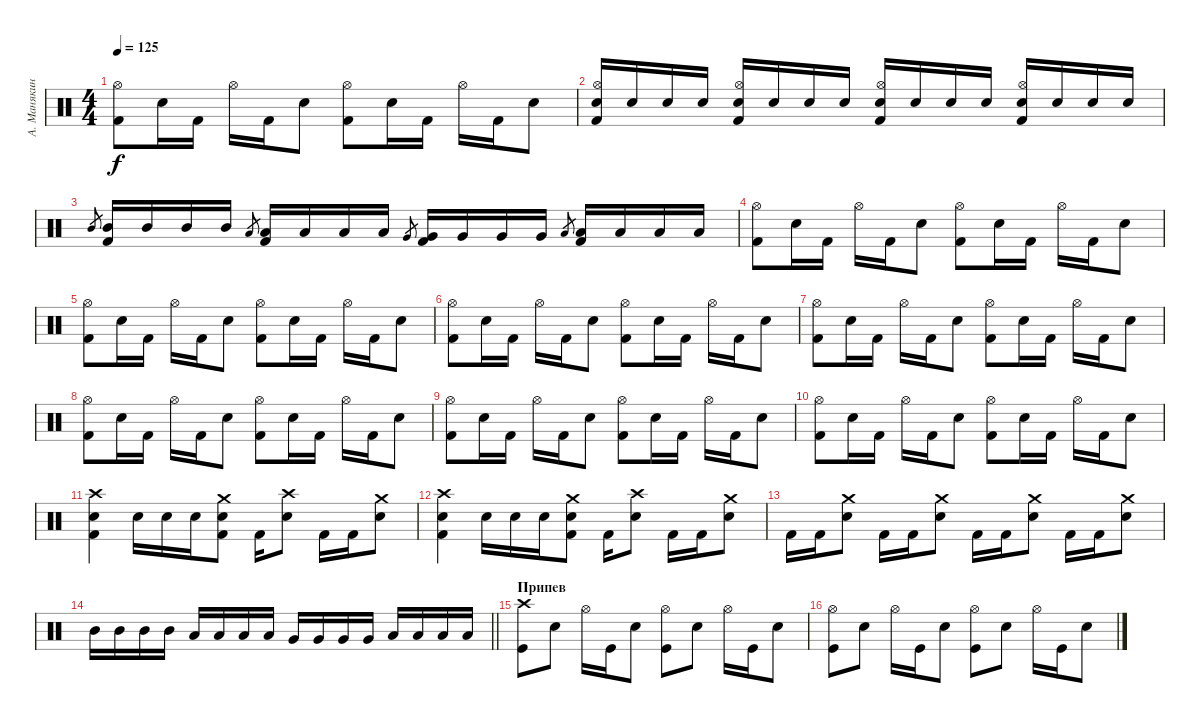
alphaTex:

\track ("А. Манякин" "А. Манякин") {instrument percussion}
\staff {score}
\articulation defaults
\ts (4 4)
\tempo 125
\clef neutral
\ks c
("Kick (hit) 2" "Hi-Hat (open)").8{dy f} "Electric Snare (hit)".16 "Kick (hit) 2".16 "Hi-Hat (open)".16 "Kick (hit) 2".16 "Electric Snare (hit)".8 ("Kick (hit) 2" "Hi-Hat (open)").8 "Electric Snare (hit)".16 "Kick (hit) 2".16 "Hi-Hat (open)".16 "Kick (hit) 2".16 "Electric Snare (hit)".8 |
("Kick (hit) 2" "Electric Snare (hit)" "Hi-Hat (open)").16 "Electric Snare (hit)".16 "Electric Snare (hit)".16 "Electric Snare (hit)".16 ("Kick (hit) 2" "Electric Snare (hit)" "Hi-Hat (open)").16 "Electric Snare (hit)".16 "Electric Snare (hit)".16 "Electric Snare (hit)".16 ("Kick (hit) 2" "Electric Snare (hit)" "Hi-Hat (open)").16 "Electric Snare (hit)".16 "Electric Snare (hit)".16 "Electric Snare (hit)".16 ("Kick (hit) 2" "Electric Snare (hit)" "Hi-Hat (open)").16 "Electric Snare (hit)".16 "Electric Snare (hit)".16 "Electric Snare (hit)".16 |
"Mid Tom (hit)".8{gr} ("Kick (hit) 2" "Mid Tom (hit)").16 "Mid Tom (hit)".16 "Mid Tom (hit)".16 "Mid Tom (hit)".16 "Low Tom (hit)".8{gr} ("Kick (hit) 2" "Low Tom (hit)").16 "Low Tom (hit)".16 "Low Tom (hit)".16 "Low Tom (hit)".16 "Very Low Tom (hit)".8{gr} ("Kick (hit) 2" "Very Low Tom (hit)").16 "Very Low Tom (hit)".16 "Very Low Tom (hit)".16 "Very Low Tom (hit)".16 "Low Floor Tom (hit)".8{gr} ("Kick (hit) 2" "Low Floor Tom (hit)").16 "Low Floor Tom (hit)".16 "Low Floor Tom (hit)".16 "Low Floor Tom (hit)".16 |
("Kick (hit) 2" "Hi-Hat (open)").8 "Electric Snare (hit)".16 "Kick (hit) 2".16 "Hi-Hat (open)".16 "Kick (hit) 2".16 "Electric Snare (hit)".8 ("Kick (hit) 2" "Hi-Hat (open)").8 "Electric Snare (hit)".16 "Kick (hit) 2".16 "Hi-Hat (open)".16 "Kick (hit) 2".16 "Electric Snare (hit)".8 |
("Kick (hit) 2" "Hi-Hat (open)").8 "Electric Snare (hit)".16 "Kick (hit) 2".16 "Hi-Hat (open)".16 "Kick (hit) 2".16 "Electric Snare (hit)".8 ("Kick (hit) 2" "Hi-Hat (open)").8 "Electric Snare (hit)".16 "Kick (hit) 2".16 "Hi-Hat (open)".16 "Kick (hit) 2".16 "Electric Snare (hit)".8 |
("Kick (hit) 2" "Hi-Hat (open)").8 "Electric Snare (hit)".16 "Kick (hit) 2".16 "Hi-Hat (open)".16 "Kick (hit) 2".16 "Electric Snare (hit)".8 ("Kick (hit) 2" "Hi-Hat (open)").8 "Electric Snare (hit)".16 "Kick (hit) 2".16 "Hi-Hat (open)".16 "Kick (hit) 2".16 "Electric Snare (hit)".8 |
("Kick (hit) 2" "Hi-Hat (open)").8 "Electric Snare (hit)".16 "Kick (hit) 2".16 "Hi-Hat (open)".16 "Kick (hit) 2".16 "Electric Snare (hit)".8 ("Kick (hit) 2" "Hi-Hat (open)").8 "Electric Snare (hit)".16 "Kick (hit) 2".16 "Hi-Hat (open)".16 "Kick (hit) 2".16 "Electric Snare (hit)".8 |
("Kick (hit) 2" "Hi-Hat (open)").8 "Electric Snare (hit)".16 "Kick (hit) 2".16 "Hi-Hat (open)".16 "Kick (hit) 2".16 "Electric Snare (hit)".8 ("Kick (hit) 2" "Hi-Hat (open)").8 "Electric Snare (hit)".16 "Kick (hit) 2".16 "Hi-Hat (open)".16 "Kick (hit) 2".16 "Electric Snare (hit)".8 |
("Kick (hit) 2" "Hi-Hat (open)").8 "Electric Snare (hit)".16 "Kick (hit) 2".16 "Hi-Hat (open)".16 "Kick (hit) 2".16 "Electric Snare (hit)".8 ("Kick (hit) 2" "Hi-Hat (open)").8 "Electric Snare (hit)".16 "Kick (hit) 2".16 "Hi-Hat (open)".16 "Kick (hit) 2".16 "Electric Snare (hit)".8 |
("Kick (hit) 2" "Hi-Hat (open)").8 "Electric Snare (hit)".16 "Kick (hit) 2".16 "Hi-Hat (open)".16 "Kick (hit) 2".16 "Electric Snare (hit)".8 ("Kick (hit) 2" "Hi-Hat (open)").8 "Electric Snare (hit)".16 "Kick (hit) 2".16 "Hi-Hat (open)".16 "Kick (hit) 2".16 "Electric Snare (hit)".8 |
("Kick (hit) 2" "Electric Snare (hit)" "Crash high (hit)").4 "Electric Snare (hit)".16 "Electric Snare (hit)".16 "Electric Snare (hit)".16 ("Kick (hit) 2" "Electric Snare (hit)" "Crash medium (hit)").8 "Kick (hit) 2".16 ("Electric Snare (hit)" "Crash high (hit)").8 "Kick (hit) 2".16 "Kick (hit) 2".16 ("Electric Snare (hit)" "Crash medium (hit)").8 |
("Kick (hit) 2" "Electric Snare (hit)" "Crash high (hit)").4 "Electric Snare (hit)".16 "Electric Snare (hit)".16 "Electric Snare (hit)".16 ("Kick (hit) 2" "Electric Snare (hit)" "Crash medium (hit)").8 "Kick (hit) 2".16 ("Electric Snare (hit)" "Crash high (hit)").8 "Kick (hit) 2".16 "Kick (hit) 2".16 ("Electric Snare (hit)" "Crash medium (hit)").8 |
"Kick (hit) 2".16 "Kick (hit) 2".16 ("Electric Snare (hit)" "Crash medium (hit)").8 "Kick (hit) 2".16 "Kick (hit) 2".16 ("Electric Snare (hit)" "Crash medium (hit)").8 "Kick (hit) 2".16 "Kick (hit) 2".16 ("Electric Snare (hit)" "Crash medium (hit)").8 "Kick (hit) 2".16 "Kick (hit) 2".16 ("Electric Snare (hit)" "Crash medium (hit)").8 |
\barLineRight lightlight "Mid Tom (hit)".16 "Mid Tom (hit)".16 "Mid Tom (hit)".16 "Mid Tom (hit)".16 "Low Tom (hit)".16 "Low Tom (hit)".16 "Low Tom (hit)".16 "Low Tom (hit)".16 "Very Low Tom (hit)".16 "Very Low Tom (hit)".16 "Very Low Tom (hit)".16 "Very Low Tom (hit)".16 "Low Floor Tom (hit)".16 "Low Floor Tom (hit)".16 "Low Floor Tom (hit)".16 "Low Floor Tom (hit)".16
|
\section ("" "Припев")
("Kick (hit)" "Crash high (hit)").8 "Electric Snare (hit)".8 "Hi-Hat (open)".16 "Kick (hit)".16 "Electric Snare (hit)".8 ("Kick (hit)" "Hi-Hat (open)").8 "Electric Snare (hit)".8 "Hi-Hat (open)".16 "Kick (hit)".16 "Electric Snare (hit)".8 |
("Kick (hit)" "Hi-Hat (open)").8 "Electric Snare (hit)".8 "Hi-Hat (open)".16 "Kick (hit)".16 "Electric Snare (hit)".8 ("Kick (hit)" "Hi-Hat (open)").8 "Electric Snare (hit)".8 "Hi-Hat (open)".16 "Kick (hit)".16 "Electric Snare (hit)".8
